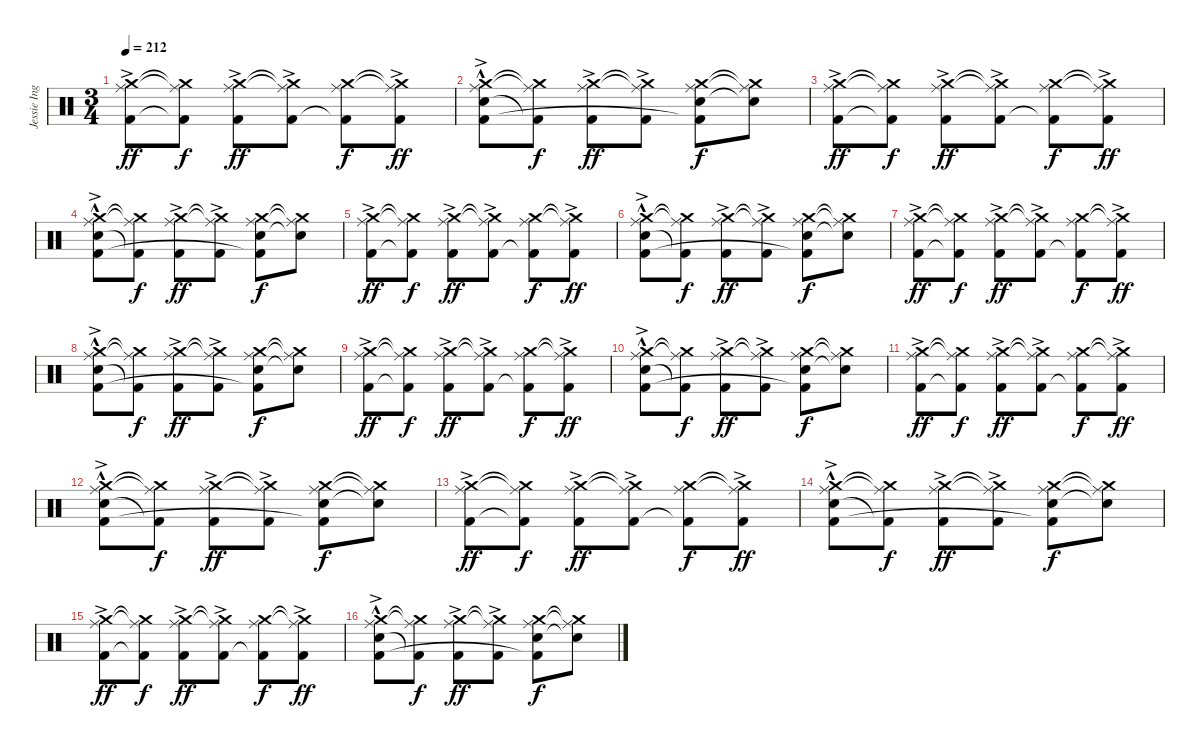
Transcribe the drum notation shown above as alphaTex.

\track ("Jessie Ingelevics" "Jessie Ing") {instrument percussion}
\staff {score}
\articulation defaults
\ts (3 4)
\tempo 212
\clef neutral
\ks c
("Crash medium (hit)" "Ride (middle)" "Kick (hit) 2"{ac}).8{dy ff} ("Crash medium (hit)"{t} "Ride (middle)"{t} "Kick (hit) 2"{t}).8{dy f} ("Crash medium (hit)" "Ride (middle)" "Kick (hit) 2"{ac}).8{dy ff} ("Crash medium (hit)"{t} "Ride (middle)"{t} "Kick (hit) 2"{ac}).8 ("Crash medium (hit)" "Ride (middle)" "Kick (hit) 2"{t}).8{dy f} ("Crash medium (hit)"{t} "Ride (middle)"{t} "Kick (hit) 2"{ac}).8{dy ff} |
("Crash medium (hit)" "Ride (middle)" "Electric Snare (hit)"{hac} "Kick (hit) 2"{ac}).8 ("Crash medium (hit)"{t} "Ride (middle)"{t} "Kick (hit) 2"{t}).8{dy f} ("Crash medium (hit)" "Ride (middle)" "Kick (hit) 2"{ac}).8{dy ff} ("Crash medium (hit)"{t} "Ride (middle)"{t} "Kick (hit) 2"{ac}).8 ("Crash medium (hit)" "Ride (middle)" "Electric Snare (hit)" "Kick (hit) 2"{t}).8{dy f} ("Crash medium (hit)"{t} "Ride (middle)"{t} "Electric Snare (hit)"{t}).8 |
("Crash medium (hit)" "Ride (middle)" "Kick (hit) 2"{ac}).8{dy ff} ("Crash medium (hit)"{t} "Ride (middle)"{t} "Kick (hit) 2"{t}).8{dy f} ("Crash medium (hit)" "Ride (middle)" "Kick (hit) 2"{ac}).8{dy ff} ("Crash medium (hit)"{t} "Ride (middle)"{t} "Kick (hit) 2"{ac}).8 ("Crash medium (hit)" "Ride (middle)" "Kick (hit) 2"{t}).8{dy f} ("Crash medium (hit)"{t} "Ride (middle)"{t} "Kick (hit) 2"{ac}).8{dy ff} |
("Crash medium (hit)" "Ride (middle)" "Electric Snare (hit)"{hac} "Kick (hit) 2"{ac}).8 ("Crash medium (hit)"{t} "Ride (middle)"{t} "Kick (hit) 2"{t}).8{dy f} ("Crash medium (hit)" "Ride (middle)" "Kick (hit) 2"{ac}).8{dy ff} ("Crash medium (hit)"{t} "Ride (middle)"{t} "Kick (hit) 2"{ac}).8 ("Crash medium (hit)" "Ride (middle)" "Electric Snare (hit)" "Kick (hit) 2"{t}).8{dy f} ("Crash medium (hit)"{t} "Ride (middle)"{t} "Electric Snare (hit)"{t}).8 |
("Crash medium (hit)" "Ride (middle)" "Kick (hit) 2"{ac}).8{dy ff} ("Crash medium (hit)"{t} "Ride (middle)"{t} "Kick (hit) 2"{t}).8{dy f} ("Crash medium (hit)" "Ride (middle)" "Kick (hit) 2"{ac}).8{dy ff} ("Crash medium (hit)"{t} "Ride (middle)"{t} "Kick (hit) 2"{ac}).8 ("Crash medium (hit)" "Ride (middle)" "Kick (hit) 2"{t}).8{dy f} ("Crash medium (hit)"{t} "Ride (middle)"{t} "Kick (hit) 2"{ac}).8{dy ff} |
("Crash medium (hit)" "Ride (middle)" "Electric Snare (hit)"{hac} "Kick (hit) 2"{ac}).8 ("Crash medium (hit)"{t} "Ride (middle)"{t} "Kick (hit) 2"{t}).8{dy f} ("Crash medium (hit)" "Ride (middle)" "Kick (hit) 2"{ac}).8{dy ff} ("Crash medium (hit)"{t} "Ride (middle)"{t} "Kick (hit) 2"{ac}).8 ("Crash medium (hit)" "Ride (middle)" "Electric Snare (hit)" "Kick (hit) 2"{t}).8{dy f} ("Crash medium (hit)"{t} "Ride (middle)"{t} "Electric Snare (hit)"{t}).8 |
("Crash medium (hit)" "Ride (middle)" "Kick (hit) 2"{ac}).8{dy ff} ("Crash medium (hit)"{t} "Ride (middle)"{t} "Kick (hit) 2"{t}).8{dy f} ("Crash medium (hit)" "Ride (middle)" "Kick (hit) 2"{ac}).8{dy ff} ("Crash medium (hit)"{t} "Ride (middle)"{t} "Kick (hit) 2"{ac}).8 ("Crash medium (hit)" "Ride (middle)" "Kick (hit) 2"{t}).8{dy f} ("Crash medium (hit)"{t} "Ride (middle)"{t} "Kick (hit) 2"{ac}).8{dy ff} |
("Crash medium (hit)" "Ride (middle)" "Electric Snare (hit)"{hac} "Kick (hit) 2"{ac}).8 ("Crash medium (hit)"{t} "Ride (middle)"{t} "Kick (hit) 2"{t}).8{dy f} ("Crash medium (hit)" "Ride (middle)" "Kick (hit) 2"{ac}).8{dy ff} ("Crash medium (hit)"{t} "Ride (middle)"{t} "Kick (hit) 2"{ac}).8 ("Crash medium (hit)" "Ride (middle)" "Electric Snare (hit)" "Kick (hit) 2"{t}).8{dy f} ("Crash medium (hit)"{t} "Ride (middle)"{t} "Electric Snare (hit)"{t}).8 |
("Crash medium (hit)" "Ride (middle)" "Kick (hit) 2"{ac}).8{dy ff} ("Crash medium (hit)"{t} "Ride (middle)"{t} "Kick (hit) 2"{t}).8{dy f} ("Crash medium (hit)" "Ride (middle)" "Kick (hit) 2"{ac}).8{dy ff} ("Crash medium (hit)"{t} "Ride (middle)"{t} "Kick (hit) 2"{ac}).8 ("Crash medium (hit)" "Ride (middle)" "Kick (hit) 2"{t}).8{dy f} ("Crash medium (hit)"{t} "Ride (middle)"{t} "Kick (hit) 2"{ac}).8{dy ff} |
("Crash medium (hit)" "Ride (middle)" "Electric Snare (hit)"{hac} "Kick (hit) 2"{ac}).8 ("Crash medium (hit)"{t} "Ride (middle)"{t} "Kick (hit) 2"{t}).8{dy f} ("Crash medium (hit)" "Ride (middle)" "Kick (hit) 2"{ac}).8{dy ff} ("Crash medium (hit)"{t} "Ride (middle)"{t} "Kick (hit) 2"{ac}).8 ("Crash medium (hit)" "Ride (middle)" "Electric Snare (hit)" "Kick (hit) 2"{t}).8{dy f} ("Crash medium (hit)"{t} "Ride (middle)"{t} "Electric Snare (hit)"{t}).8 |
("Crash medium (hit)" "Ride (middle)" "Kick (hit) 2"{ac}).8{dy ff} ("Crash medium (hit)"{t} "Ride (middle)"{t} "Kick (hit) 2"{t}).8{dy f} ("Crash medium (hit)" "Ride (middle)" "Kick (hit) 2"{ac}).8{dy ff} ("Crash medium (hit)"{t} "Ride (middle)"{t} "Kick (hit) 2"{ac}).8 ("Crash medium (hit)" "Ride (middle)" "Kick (hit) 2"{t}).8{dy f} ("Crash medium (hit)"{t} "Ride (middle)"{t} "Kick (hit) 2"{ac}).8{dy ff} |
("Crash medium (hit)" "Ride (middle)" "Electric Snare (hit)"{hac} "Kick (hit) 2"{ac}).8 ("Crash medium (hit)"{t} "Ride (middle)"{t} "Kick (hit) 2"{t}).8{dy f} ("Crash medium (hit)" "Ride (middle)" "Kick (hit) 2"{ac}).8{dy ff} ("Crash medium (hit)"{t} "Ride (middle)"{t} "Kick (hit) 2"{ac}).8 ("Crash medium (hit)" "Ride (middle)" "Electric Snare (hit)" "Kick (hit) 2"{t}).8{dy f} ("Crash medium (hit)"{t} "Ride (middle)"{t} "Electric Snare (hit)"{t}).8 |
("Crash medium (hit)" "Ride (middle)" "Kick (hit) 2"{ac}).8{dy ff} ("Crash medium (hit)"{t} "Ride (middle)"{t} "Kick (hit) 2"{t}).8{dy f} ("Crash medium (hit)" "Ride (middle)" "Kick (hit) 2"{ac}).8{dy ff} ("Crash medium (hit)"{t} "Ride (middle)"{t} "Kick (hit) 2"{ac}).8 ("Crash medium (hit)" "Ride (middle)" "Kick (hit) 2"{t}).8{dy f} ("Crash medium (hit)"{t} "Ride (middle)"{t} "Kick (hit) 2"{ac}).8{dy ff} |
("Crash medium (hit)" "Ride (middle)" "Electric Snare (hit)"{hac} "Kick (hit) 2"{ac}).8 ("Crash medium (hit)"{t} "Ride (middle)"{t} "Kick (hit) 2"{t}).8{dy f} ("Crash medium (hit)" "Ride (middle)" "Kick (hit) 2"{ac}).8{dy ff} ("Crash medium (hit)"{t} "Ride (middle)"{t} "Kick (hit) 2"{ac}).8 ("Crash medium (hit)" "Ride (middle)" "Electric Snare (hit)" "Kick (hit) 2"{t}).8{dy f} ("Crash medium (hit)"{t} "Ride (middle)"{t} "Electric Snare (hit)"{t}).8 |
("Crash medium (hit)" "Ride (middle)" "Kick (hit) 2"{ac}).8{dy ff} ("Crash medium (hit)"{t} "Ride (middle)"{t} "Kick (hit) 2"{t}).8{dy f} ("Crash medium (hit)" "Ride (middle)" "Kick (hit) 2"{ac}).8{dy ff} ("Crash medium (hit)"{t} "Ride (middle)"{t} "Kick (hit) 2"{ac}).8 ("Crash medium (hit)" "Ride (middle)" "Kick (hit) 2"{t}).8{dy f} ("Crash medium (hit)"{t} "Ride (middle)"{t} "Kick (hit) 2"{ac}).8{dy ff} |
("Crash medium (hit)" "Ride (middle)" "Electric Snare (hit)"{hac} "Kick (hit) 2"{ac}).8 ("Crash medium (hit)"{t} "Ride (middle)"{t} "Kick (hit) 2"{t}).8{dy f} ("Crash medium (hit)" "Ride (middle)" "Kick (hit) 2"{ac}).8{dy ff} ("Crash medium (hit)"{t} "Ride (middle)"{t} "Kick (hit) 2"{ac}).8 ("Crash medium (hit)" "Ride (middle)" "Electric Snare (hit)" "Kick (hit) 2"{t}).8{dy f} ("Crash medium (hit)"{t} "Ride (middle)"{t} "Electric Snare (hit)"{t}).8
